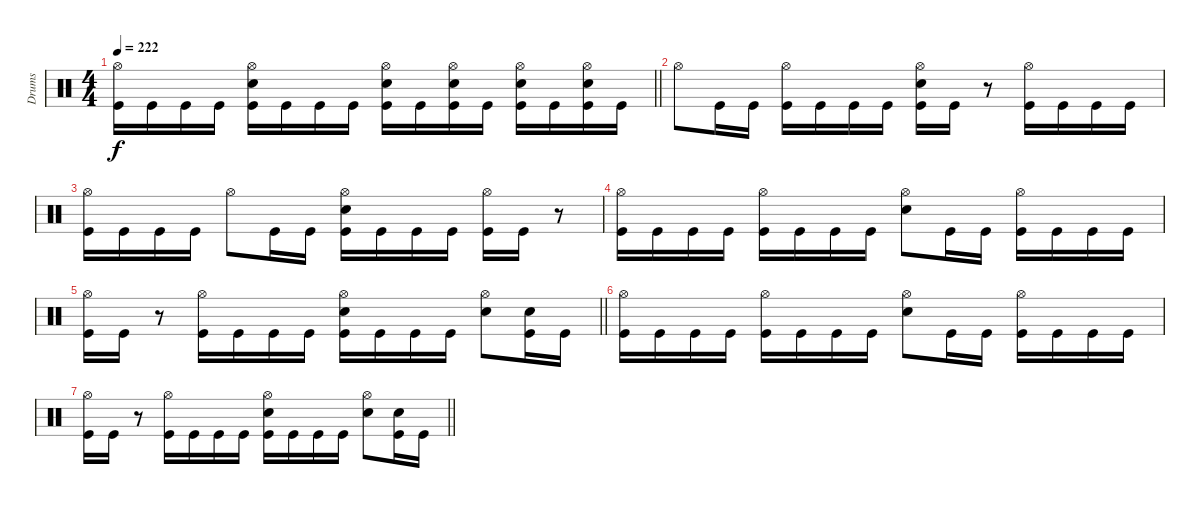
\track ("Drums" "Drums") {instrument percussion}
\staff
\articulation defaults
\ts (4 4)
\tempo 222
\clef neutral
\barLineRight lightlight
\ks c
("Hi-Hat (open)" "Kick (hit)").16{dy f} "Kick (hit)".16 "Kick (hit)".16 "Kick (hit)".16 ("Hi-Hat (open)" "Electric Snare (hit)" "Kick (hit)").16 "Kick (hit)".16 "Kick (hit)".16 "Kick (hit)".16 ("Hi-Hat (open)" "Electric Snare (hit)" "Kick (hit)").16 "Kick (hit)".16 ("Hi-Hat (open)" "Electric Snare (hit)" "Kick (hit)").16 "Kick (hit)".16 ("Hi-Hat (open)" "Electric Snare (hit)" "Kick (hit)").16 "Kick (hit)".16 ("Hi-Hat (open)" "Electric Snare (hit)" "Kick (hit)").16 "Kick (hit)".16 |
"Hi-Hat (open)".8 "Kick (hit)".16 "Kick (hit)".16 ("Hi-Hat (open)" "Kick (hit)").16 "Kick (hit)".16 "Kick (hit)".16 "Kick (hit)".16 ("Hi-Hat (open)" "Electric Snare (hit)" "Kick (hit)").16 "Kick (hit)".16 r.8 ("Hi-Hat (open)" "Kick (hit)").16 "Kick (hit)".16 "Kick (hit)".16 "Kick (hit)".16 |
("Hi-Hat (open)" "Kick (hit)").16 "Kick (hit)".16 "Kick (hit)".16 "Kick (hit)".16 "Hi-Hat (open)".8 "Kick (hit)".16 "Kick (hit)".16 ("Hi-Hat (open)" "Electric Snare (hit)" "Kick (hit)").16 "Kick (hit)".16 "Kick (hit)".16 "Kick (hit)".16 ("Hi-Hat (open)" "Kick (hit)").16 "Kick (hit)".16 r.8 |
("Hi-Hat (open)" "Kick (hit)").16 "Kick (hit)".16 "Kick (hit)".16 "Kick (hit)".16 ("Hi-Hat (open)" "Kick (hit)").16 "Kick (hit)".16 "Kick (hit)".16 "Kick (hit)".16 ("Hi-Hat (open)" "Electric Snare (hit)").8 "Kick (hit)".16 "Kick (hit)".16 ("Hi-Hat (open)" "Kick (hit)").16 "Kick (hit)".16 "Kick (hit)".16 "Kick (hit)".16 |
\barLineRight lightlight
("Hi-Hat (open)" "Kick (hit)").16 "Kick (hit)".16 r.8 ("Hi-Hat (open)" "Kick (hit)").16 "Kick (hit)".16 "Kick (hit)".16 "Kick (hit)".16 ("Hi-Hat (open)" "Electric Snare (hit)" "Kick (hit)").16 "Kick (hit)".16 "Kick (hit)".16 "Kick (hit)".16 ("Hi-Hat (open)" "Electric Snare (hit)").8 ("Electric Snare (hit)" "Kick (hit)").16 "Kick (hit)".16 |
("Hi-Hat (open)" "Kick (hit)").16 "Kick (hit)".16 "Kick (hit)".16 "Kick (hit)".16 ("Hi-Hat (open)" "Kick (hit)").16 "Kick (hit)".16 "Kick (hit)".16 "Kick (hit)".16 ("Hi-Hat (open)" "Electric Snare (hit)").8 "Kick (hit)".16 "Kick (hit)".16 ("Hi-Hat (open)" "Kick (hit)").16 "Kick (hit)".16 "Kick (hit)".16 "Kick (hit)".16 |
\barLineRight lightlight
("Hi-Hat (open)" "Kick (hit)").16 "Kick (hit)".16 r.8 ("Hi-Hat (open)" "Kick (hit)").16 "Kick (hit)".16 "Kick (hit)".16 "Kick (hit)".16 ("Hi-Hat (open)" "Electric Snare (hit)" "Kick (hit)").16 "Kick (hit)".16 "Kick (hit)".16 "Kick (hit)".16 ("Hi-Hat (open)" "Electric Snare (hit)").8 ("Electric Snare (hit)" "Kick (hit)").16 "Kick (hit)".16
